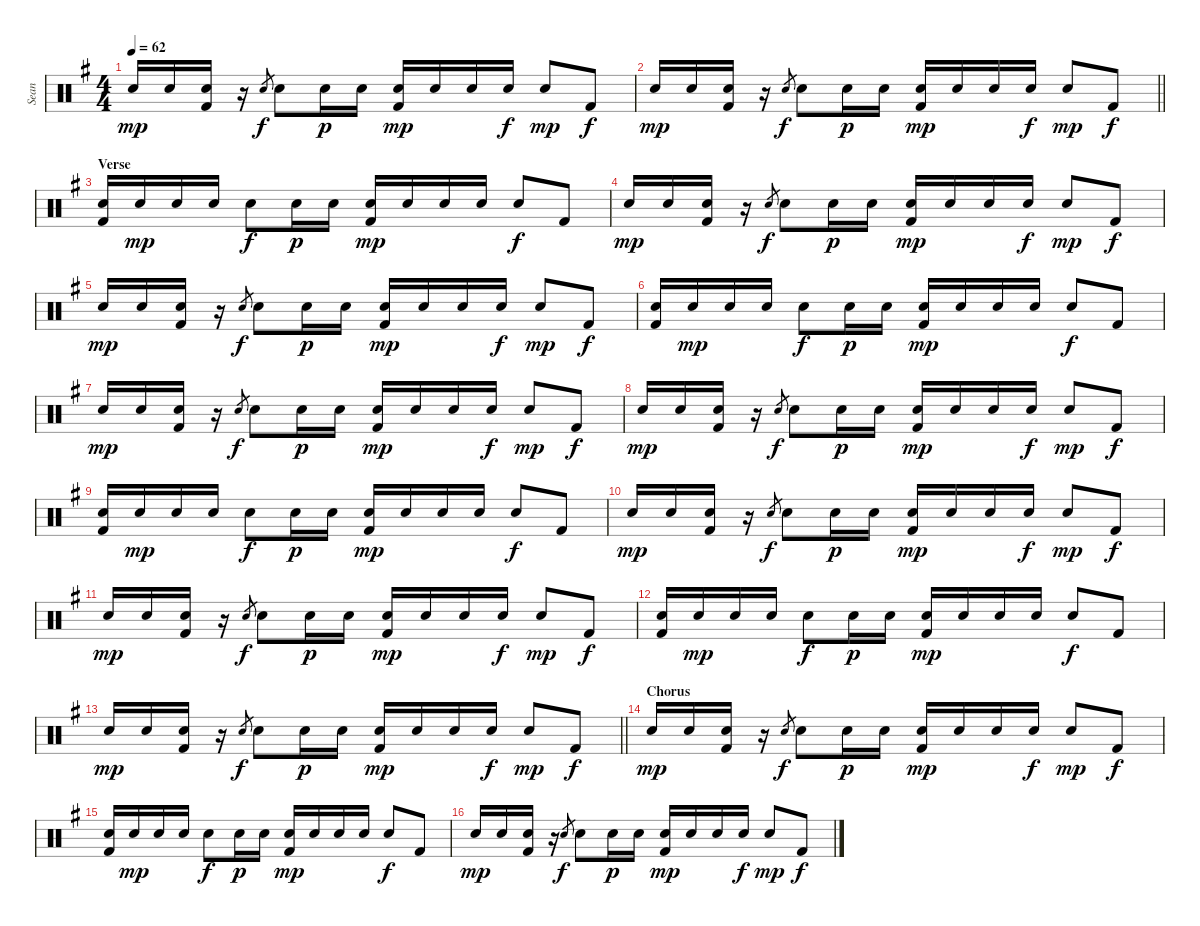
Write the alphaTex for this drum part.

\track ("Sean" "Sean") {instrument percussion}
\staff {score}
\articulation defaults
\ts (4 4)
\tempo 62
\clef neutral
\ks eminor "Electric Snare (hit)".16{dy mp} "Electric Snare (hit)".16
("Electric Snare (hit)" "Kick (hit) 2").16 r.16 "Electric Snare (hit)".8{gr dy f} "Electric Snare (hit)".8 "Electric Snare (hit)".16{dy p} "Electric Snare (hit)".16 ("Electric Snare (hit)" "Kick (hit) 2").16{dy mp} "Electric Snare (hit)".16 "Electric Snare (hit)".16 "Electric Snare (hit)".16{dy f} "Electric Snare (hit)".8{dy mp} "Kick (hit) 2".8{dy f} |
\barLineRight lightlight "Electric Snare (hit)".16{dy mp} "Electric Snare (hit)".16
("Electric Snare (hit)" "Kick (hit) 2").16 r.16 "Electric Snare (hit)".8{gr dy f} "Electric Snare (hit)".8 "Electric Snare (hit)".16{dy p} "Electric Snare (hit)".16 ("Electric Snare (hit)" "Kick (hit) 2").16{dy mp} "Electric Snare (hit)".16 "Electric Snare (hit)".16 "Electric Snare (hit)".16{dy f} "Electric Snare (hit)".8{dy mp} "Kick (hit) 2".8{dy f} |
\section ("" "Verse")
("Electric Snare (hit)" "Kick (hit) 2").16 "Electric Snare (hit)".16{dy mp} "Electric Snare (hit)".16 "Electric Snare (hit)".16 "Electric Snare (hit)".8{dy f} "Electric Snare (hit)".16{dy p} "Electric Snare (hit)".16 ("Electric Snare (hit)" "Kick (hit) 2").16{dy mp} "Electric Snare (hit)".16 "Electric Snare (hit)".16 "Electric Snare (hit)".16 "Electric Snare (hit)".8{dy f} "Kick (hit) 2".8 |
"Electric Snare (hit)".16{dy mp} "Electric Snare (hit)".16 ("Electric Snare (hit)" "Kick (hit) 2").16 r.16 "Electric Snare (hit)".8{gr dy f} "Electric Snare (hit)".8 "Electric Snare (hit)".16{dy p} "Electric Snare (hit)".16 ("Electric Snare (hit)" "Kick (hit) 2").16{dy mp} "Electric Snare (hit)".16 "Electric Snare (hit)".16 "Electric Snare (hit)".16{dy f} "Electric Snare (hit)".8{dy mp} "Kick (hit) 2".8{dy f} |
"Electric Snare (hit)".16{dy mp} "Electric Snare (hit)".16 ("Electric Snare (hit)" "Kick (hit) 2").16 r.16 "Electric Snare (hit)".8{gr dy f} "Electric Snare (hit)".8 "Electric Snare (hit)".16{dy p} "Electric Snare (hit)".16 ("Electric Snare (hit)" "Kick (hit) 2").16{dy mp} "Electric Snare (hit)".16 "Electric Snare (hit)".16 "Electric Snare (hit)".16{dy f} "Electric Snare (hit)".8{dy mp} "Kick (hit) 2".8{dy f} |
("Electric Snare (hit)" "Kick (hit) 2").16 "Electric Snare (hit)".16{dy mp} "Electric Snare (hit)".16 "Electric Snare (hit)".16 "Electric Snare (hit)".8{dy f} "Electric Snare (hit)".16{dy p} "Electric Snare (hit)".16 ("Electric Snare (hit)" "Kick (hit) 2").16{dy mp} "Electric Snare (hit)".16 "Electric Snare (hit)".16 "Electric Snare (hit)".16 "Electric Snare (hit)".8{dy f} "Kick (hit) 2".8 |
"Electric Snare (hit)".16{dy mp} "Electric Snare (hit)".16 ("Electric Snare (hit)" "Kick (hit) 2").16 r.16 "Electric Snare (hit)".8{gr dy f} "Electric Snare (hit)".8 "Electric Snare (hit)".16{dy p} "Electric Snare (hit)".16 ("Electric Snare (hit)" "Kick (hit) 2").16{dy mp} "Electric Snare (hit)".16 "Electric Snare (hit)".16 "Electric Snare (hit)".16{dy f} "Electric Snare (hit)".8{dy mp} "Kick (hit) 2".8{dy f} |
"Electric Snare (hit)".16{dy mp} "Electric Snare (hit)".16 ("Electric Snare (hit)" "Kick (hit) 2").16 r.16 "Electric Snare (hit)".8{gr dy f} "Electric Snare (hit)".8 "Electric Snare (hit)".16{dy p} "Electric Snare (hit)".16 ("Electric Snare (hit)" "Kick (hit) 2").16{dy mp} "Electric Snare (hit)".16 "Electric Snare (hit)".16 "Electric Snare (hit)".16{dy f} "Electric Snare (hit)".8{dy mp} "Kick (hit) 2".8{dy f} |
("Electric Snare (hit)" "Kick (hit) 2").16 "Electric Snare (hit)".16{dy mp} "Electric Snare (hit)".16 "Electric Snare (hit)".16 "Electric Snare (hit)".8{dy f} "Electric Snare (hit)".16{dy p} "Electric Snare (hit)".16 ("Electric Snare (hit)" "Kick (hit) 2").16{dy mp} "Electric Snare (hit)".16 "Electric Snare (hit)".16 "Electric Snare (hit)".16 "Electric Snare (hit)".8{dy f} "Kick (hit) 2".8 |
"Electric Snare (hit)".16{dy mp} "Electric Snare (hit)".16 ("Electric Snare (hit)" "Kick (hit) 2").16 r.16 "Electric Snare (hit)".8{gr dy f} "Electric Snare (hit)".8 "Electric Snare (hit)".16{dy p} "Electric Snare (hit)".16 ("Electric Snare (hit)" "Kick (hit) 2").16{dy mp} "Electric Snare (hit)".16 "Electric Snare (hit)".16 "Electric Snare (hit)".16{dy f} "Electric Snare (hit)".8{dy mp} "Kick (hit) 2".8{dy f} |
"Electric Snare (hit)".16{dy mp} "Electric Snare (hit)".16 ("Electric Snare (hit)" "Kick (hit) 2").16 r.16 "Electric Snare (hit)".8{gr dy f} "Electric Snare (hit)".8 "Electric Snare (hit)".16{dy p} "Electric Snare (hit)".16 ("Electric Snare (hit)" "Kick (hit) 2").16{dy mp} "Electric Snare (hit)".16 "Electric Snare (hit)".16 "Electric Snare (hit)".16{dy f} "Electric Snare (hit)".8{dy mp} "Kick (hit) 2".8{dy f} |
("Electric Snare (hit)" "Kick (hit) 2").16 "Electric Snare (hit)".16{dy mp} "Electric Snare (hit)".16 "Electric Snare (hit)".16 "Electric Snare (hit)".8{dy f} "Electric Snare (hit)".16{dy p} "Electric Snare (hit)".16 ("Electric Snare (hit)" "Kick (hit) 2").16{dy mp} "Electric Snare (hit)".16 "Electric Snare (hit)".16 "Electric Snare (hit)".16 "Electric Snare (hit)".8{dy f} "Kick (hit) 2".8 |
\barLineRight lightlight "Electric Snare (hit)".16{dy mp} "Electric Snare (hit)".16
("Electric Snare (hit)" "Kick (hit) 2").16 r.16 "Electric Snare (hit)".8{gr dy f} "Electric Snare (hit)".8 "Electric Snare (hit)".16{dy p} "Electric Snare (hit)".16 ("Electric Snare (hit)" "Kick (hit) 2").16{dy mp} "Electric Snare (hit)".16 "Electric Snare (hit)".16 "Electric Snare (hit)".16{dy f} "Electric Snare (hit)".8{dy mp} "Kick (hit) 2".8{dy f} |
\section ("" "Chorus")
"Electric Snare (hit)".16{dy mp} "Electric Snare (hit)".16 ("Electric Snare (hit)" "Kick (hit) 2").16 r.16 "Electric Snare (hit)".8{gr dy f} "Electric Snare (hit)".8 "Electric Snare (hit)".16{dy p} "Electric Snare (hit)".16 ("Electric Snare (hit)" "Kick (hit) 2").16{dy mp} "Electric Snare (hit)".16 "Electric Snare (hit)".16 "Electric Snare (hit)".16{dy f} "Electric Snare (hit)".8{dy mp} "Kick (hit) 2".8{dy f} |
("Electric Snare (hit)" "Kick (hit) 2").16 "Electric Snare (hit)".16{dy mp} "Electric Snare (hit)".16 "Electric Snare (hit)".16 "Electric Snare (hit)".8{dy f} "Electric Snare (hit)".16{dy p} "Electric Snare (hit)".16 ("Electric Snare (hit)" "Kick (hit) 2").16{dy mp} "Electric Snare (hit)".16 "Electric Snare (hit)".16 "Electric Snare (hit)".16 "Electric Snare (hit)".8{dy f} "Kick (hit) 2".8 |
"Electric Snare (hit)".16{dy mp} "Electric Snare (hit)".16 ("Electric Snare (hit)" "Kick (hit) 2").16 r.16 "Electric Snare (hit)".8{gr dy f} "Electric Snare (hit)".8 "Electric Snare (hit)".16{dy p} "Electric Snare (hit)".16 ("Electric Snare (hit)" "Kick (hit) 2").16{dy mp} "Electric Snare (hit)".16 "Electric Snare (hit)".16 "Electric Snare (hit)".16{dy f} "Electric Snare (hit)".8{dy mp} "Kick (hit) 2".8{dy f}
